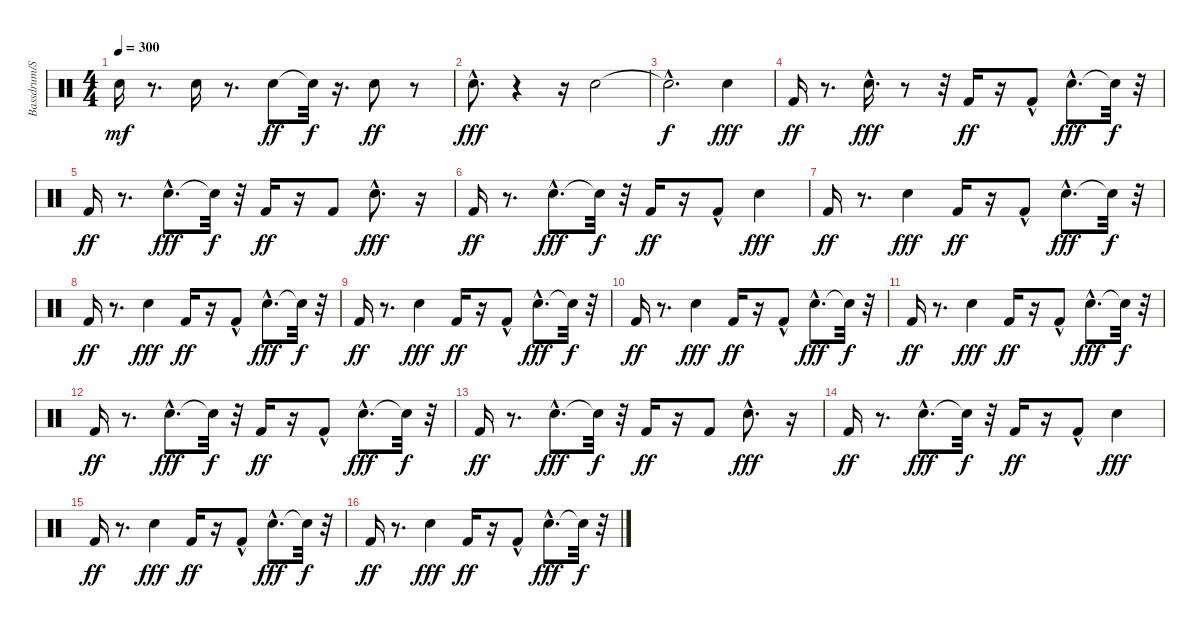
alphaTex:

\track ("Bassdrum/Snare" "Bassdrum/S") {instrument percussion}
\staff {score}
\articulation defaults
\ts (4 4)
\tempo 300
\clef neutral
\ks c "Snare (hit) 2".16{dy mf}
r.8{d} "Snare (hit) 2".16 r.8{d} "Snare (hit) 2".8{dy ff} "Snare (hit)"{t}.32{dy f} r.16{d} "Snare (hit) 2".8{dy ff} r.8 |
"Snare (hit) 2"{hac}.8{d dy fff} r.4 r.16 "Snare (hit) 2".2 |
"Snare (hit)"{hac t}.2{d dy f} "Snare (hit) 2".4{dy fff} |
"Kick (hit) 2".16{dy ff} r.8{d} "Snare (hit) 2"{hac}.16{d dy fff} r.8 r.32 "Kick (hit) 2".16{dy ff} r.16 "Kick (hit) 2"{hac}.8 "Snare (hit) 2"{hac}.8{d dy fff} "Snare (hit)"{t}.32{dy f} r.32 |
"Kick (hit) 2".16{dy ff} r.8{d} "Snare (hit) 2"{hac}.8{d dy fff} "Snare (hit)"{t}.32{dy f} r.32 "Kick (hit) 2".16{dy ff} r.16 "Kick (hit) 2".8 "Snare (hit) 2"{hac}.8{d dy fff} r.16 |
"Kick (hit) 2".16{dy ff} r.8{d} "Snare (hit) 2"{hac}.8{d dy fff} "Snare (hit)"{t}.32{dy f} r.32 "Kick (hit) 2".16{dy ff} r.16 "Kick (hit) 2"{hac}.8 "Snare (hit) 2".4{dy fff} |
"Kick (hit) 2".16{dy ff} r.8{d} "Snare (hit) 2".4{dy fff} "Kick (hit) 2".16{dy ff} r.16 "Kick (hit) 2"{hac}.8 "Snare (hit) 2"{hac}.8{d dy fff} "Snare (hit)"{t}.32{dy f} r.32 |
"Kick (hit) 2".16{dy ff} r.8{d} "Snare (hit) 2".4{dy fff} "Kick (hit) 2".16{dy ff} r.16 "Kick (hit) 2"{hac}.8 "Snare (hit) 2"{hac}.8{d dy fff} "Snare (hit)"{t}.32{dy f} r.32 |
"Kick (hit) 2".16{dy ff} r.8{d} "Snare (hit) 2".4{dy fff} "Kick (hit) 2".16{dy ff} r.16 "Kick (hit) 2"{hac}.8 "Snare (hit) 2"{hac}.8{d dy fff} "Snare (hit)"{t}.32{dy f} r.32 |
"Kick (hit) 2".16{dy ff} r.8{d} "Snare (hit) 2".4{dy fff} "Kick (hit) 2".16{dy ff} r.16 "Kick (hit) 2"{hac}.8 "Snare (hit) 2"{hac}.8{d dy fff} "Snare (hit)"{t}.32{dy f} r.32 |
"Kick (hit) 2".16{dy ff} r.8{d} "Snare (hit) 2".4{dy fff} "Kick (hit) 2".16{dy ff} r.16 "Kick (hit) 2"{hac}.8 "Snare (hit) 2"{hac}.8{d dy fff} "Snare (hit)"{t}.32{dy f} r.32 |
"Kick (hit) 2".16{dy ff} r.8{d} "Snare (hit) 2"{hac}.8{d dy fff} "Snare (hit)"{t}.32{dy f} r.32 "Kick (hit) 2".16{dy ff} r.16 "Kick (hit) 2"{hac}.8 "Snare (hit) 2"{hac}.8{d dy fff} "Snare (hit)"{t}.32{dy f} r.32 |
"Kick (hit) 2".16{dy ff} r.8{d} "Snare (hit) 2"{hac}.8{d dy fff} "Snare (hit)"{t}.32{dy f} r.32 "Kick (hit) 2".16{dy ff} r.16 "Kick (hit) 2".8 "Snare (hit) 2"{hac}.8{d dy fff} r.16 |
"Kick (hit) 2".16{dy ff} r.8{d} "Snare (hit) 2"{hac}.8{d dy fff} "Snare (hit)"{t}.32{dy f} r.32 "Kick (hit) 2".16{dy ff} r.16 "Kick (hit) 2"{hac}.8 "Snare (hit) 2".4{dy fff} |
"Kick (hit) 2".16{dy ff} r.8{d} "Snare (hit) 2".4{dy fff} "Kick (hit) 2".16{dy ff} r.16 "Kick (hit) 2"{hac}.8 "Snare (hit) 2"{hac}.8{d dy fff} "Snare (hit)"{t}.32{dy f} r.32 |
"Kick (hit) 2".16{dy ff} r.8{d} "Snare (hit) 2".4{dy fff} "Kick (hit) 2".16{dy ff} r.16 "Kick (hit) 2"{hac}.8 "Snare (hit) 2"{hac}.8{d dy fff} "Snare (hit)"{t}.32{dy f} r.32
